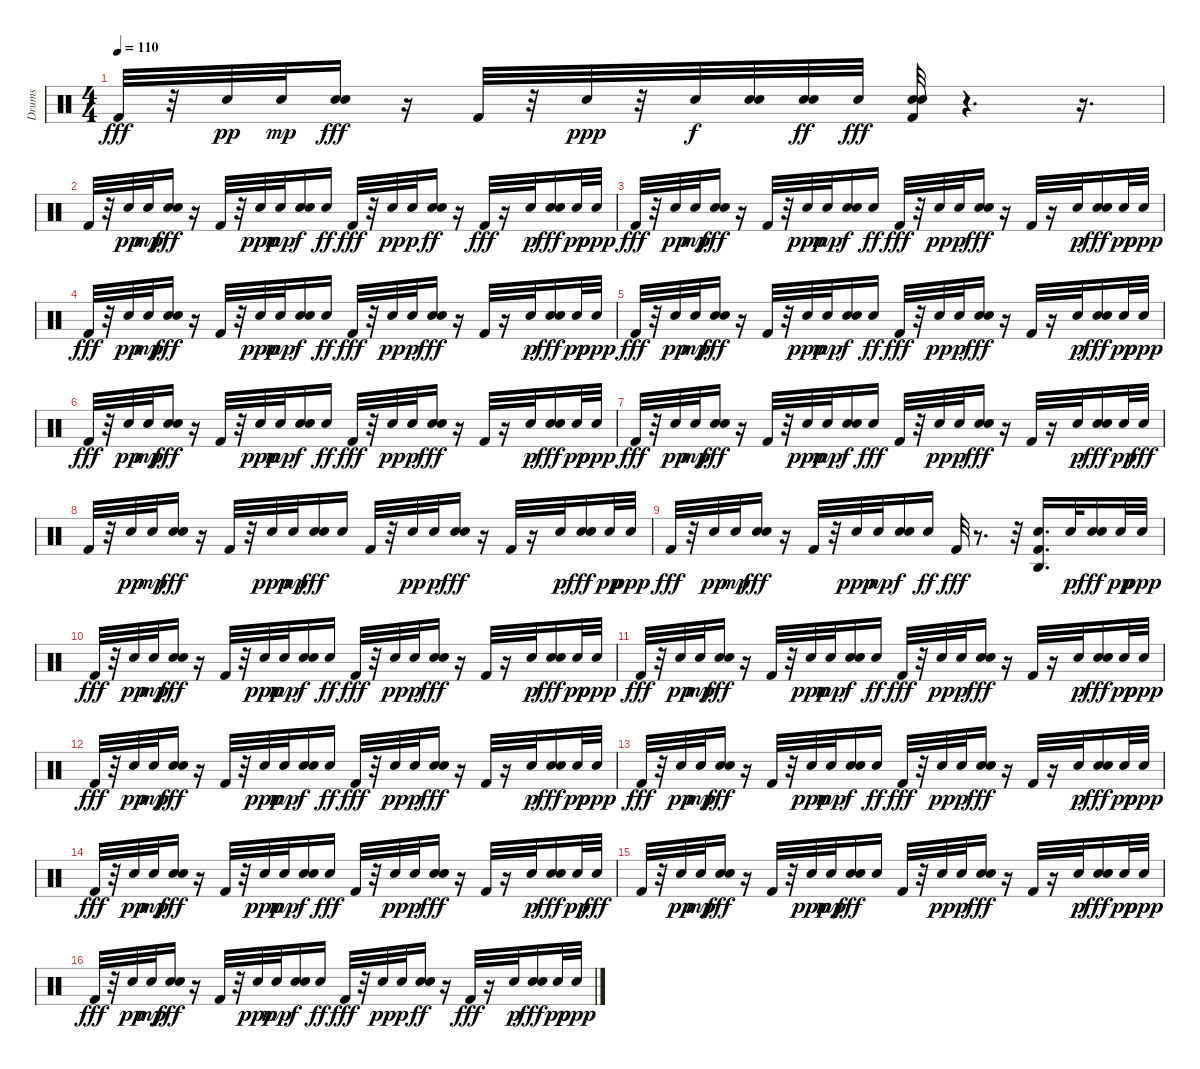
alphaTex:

\track ("Drums" "Drums") {instrument percussion}
\staff {score}
\articulation defaults
\ts (4 4)
\tempo 110
\clef neutral
\ks c "Kick (hit) 2".32{dy fff}
r.32 "Electric Snare (hit)".32{dy pp} "Electric Snare (hit)".32{dy mp} ("Snare (hit) 2" "Electric Snare (hit)").16{dy fff} r.16 "Kick (hit) 2".32 r.32 "Electric Snare (hit)".32{dy ppp} r.32 "Electric Snare (hit)".32{dy f} ("Snare (hit) 2" "Electric Snare (hit)").32 ("Snare (hit) 2" "Electric Snare (hit)").32{dy ff} "Electric Snare (hit)".32{dy fff} ("Kick (hit) 2" "Snare (hit) 2" "Electric Snare (hit)").32 r.4{d} r.16{d} |
"Kick (hit) 2".32 r.32 "Electric Snare (hit)".32{dy pp} "Electric Snare (hit)".32{dy mp} ("Snare (hit) 2" "Electric Snare (hit)").16{dy fff} r.16 "Kick (hit) 2".32 r.32 "Electric Snare (hit)".32{dy ppp} "Electric Snare (hit)".32{dy mp} ("Snare (hit) 2" "Electric Snare (hit)").16{dy f} "Electric Snare (hit)".16{dy ff} "Kick (hit) 2".32{dy fff} r.32 "Electric Snare (hit)".32{dy pp} "Electric Snare (hit)".32{dy p} ("Snare (hit) 2" "Electric Snare (hit)").16{dy ff} r.16 "Kick (hit) 2".32{dy fff} r.16 "Electric Snare (hit)".32{dy p} ("Snare (hit) 2" "Electric Snare (hit)").16{dy fff} "Electric Snare (hit)".32{dy pp} "Electric Snare (hit)".32{dy ppp} |
"Kick (hit) 2".32{dy fff} r.32 "Electric Snare (hit)".32{dy pp} "Electric Snare (hit)".32{dy mp} ("Snare (hit) 2" "Electric Snare (hit)").16{dy fff} r.16 "Kick (hit) 2".32 r.32 "Electric Snare (hit)".32{dy ppp} "Electric Snare (hit)".32{dy mp} ("Snare (hit) 2" "Electric Snare (hit)").16{dy f} "Electric Snare (hit)".16{dy ff} "Kick (hit) 2".32{dy fff} r.32 "Electric Snare (hit)".32{dy pp} "Electric Snare (hit)".32{dy p} ("Snare (hit) 2" "Electric Snare (hit)").16{dy fff} r.16 "Kick (hit) 2".32 r.16 "Electric Snare (hit)".32{dy p} ("Snare (hit) 2" "Electric Snare (hit)").16{dy fff} "Electric Snare (hit)".32{dy pp} "Electric Snare (hit)".32{dy ppp} |
"Kick (hit) 2".32{dy fff} r.32 "Electric Snare (hit)".32{dy pp} "Electric Snare (hit)".32{dy mp} ("Snare (hit) 2" "Electric Snare (hit)").16{dy fff} r.16 "Kick (hit) 2".32 r.32 "Electric Snare (hit)".32{dy ppp} "Electric Snare (hit)".32{dy mp} ("Snare (hit) 2" "Electric Snare (hit)").16{dy f} "Electric Snare (hit)".16{dy ff} "Kick (hit) 2".32{dy fff} r.32 "Electric Snare (hit)".32{dy pp} "Electric Snare (hit)".32{dy p} ("Snare (hit) 2" "Electric Snare (hit)").16{dy fff} r.16 "Kick (hit) 2".32 r.16 "Electric Snare (hit)".32{dy p} ("Snare (hit) 2" "Electric Snare (hit)").16{dy fff} "Electric Snare (hit)".32{dy pp} "Electric Snare (hit)".32{dy ppp} |
"Kick (hit) 2".32{dy fff} r.32 "Electric Snare (hit)".32{dy pp} "Electric Snare (hit)".32{dy mp} ("Snare (hit) 2" "Electric Snare (hit)").16{dy fff} r.16 "Kick (hit) 2".32 r.32 "Electric Snare (hit)".32{dy ppp} "Electric Snare (hit)".32{dy mp} ("Snare (hit) 2" "Electric Snare (hit)").16{dy f} "Electric Snare (hit)".16{dy ff} "Kick (hit) 2".32{dy fff} r.32 "Electric Snare (hit)".32{dy pp} "Electric Snare (hit)".32{dy p} ("Snare (hit) 2" "Electric Snare (hit)").16{dy fff} r.16 "Kick (hit) 2".32 r.16 "Electric Snare (hit)".32{dy p} ("Snare (hit) 2" "Electric Snare (hit)").16{dy fff} "Electric Snare (hit)".32{dy pp} "Electric Snare (hit)".32{dy ppp} |
"Kick (hit) 2".32{dy fff} r.32 "Electric Snare (hit)".32{dy pp} "Electric Snare (hit)".32{dy mp} ("Snare (hit) 2" "Electric Snare (hit)").16{dy fff} r.16 "Kick (hit) 2".32 r.32 "Electric Snare (hit)".32{dy ppp} "Electric Snare (hit)".32{dy mp} ("Snare (hit) 2" "Electric Snare (hit)").16{dy f} "Electric Snare (hit)".16{dy ff} "Kick (hit) 2".32{dy fff} r.32 "Electric Snare (hit)".32{dy pp} "Electric Snare (hit)".32{dy p} ("Snare (hit) 2" "Electric Snare (hit)").16{dy fff} r.16 "Kick (hit) 2".32 r.16 "Electric Snare (hit)".32{dy p} ("Snare (hit) 2" "Electric Snare (hit)").16{dy fff} "Electric Snare (hit)".32{dy pp} "Electric Snare (hit)".32{dy ppp} |
"Kick (hit) 2".32{dy fff} r.32 "Electric Snare (hit)".32{dy pp} "Electric Snare (hit)".32{dy mp} ("Snare (hit) 2" "Electric Snare (hit)").16{dy fff} r.16 "Kick (hit) 2".32 r.32 "Electric Snare (hit)".32{dy ppp} "Electric Snare (hit)".32{dy mp} ("Snare (hit) 2" "Electric Snare (hit)").16{dy f} "Electric Snare (hit)".16{dy fff} "Kick (hit) 2".32 r.32 "Electric Snare (hit)".32{dy pp} "Electric Snare (hit)".32{dy p} ("Snare (hit) 2" "Electric Snare (hit)").16{dy fff} r.16 "Kick (hit) 2".32 r.16 "Electric Snare (hit)".32{dy p} ("Snare (hit) 2" "Electric Snare (hit)").16{dy fff} "Electric Snare (hit)".32{dy pp} "Electric Snare (hit)".32{dy fff} |
"Kick (hit) 2".32 r.32 "Electric Snare (hit)".32{dy pp} "Electric Snare (hit)".32{dy mp} ("Snare (hit) 2" "Electric Snare (hit)").16{dy fff} r.16 "Kick (hit) 2".32 r.32 "Electric Snare (hit)".32{dy ppp} "Electric Snare (hit)".32{dy mp} ("Snare (hit) 2" "Electric Snare (hit)").16{dy fff} "Electric Snare (hit)".16 "Kick (hit) 2".32 r.32 "Electric Snare (hit)".32{dy pp} "Electric Snare (hit)".32{dy p} ("Snare (hit) 2" "Electric Snare (hit)").16{dy fff} r.16 "Kick (hit) 2".32 r.16 "Electric Snare (hit)".32{dy p} ("Snare (hit) 2" "Electric Snare (hit)").16{dy fff} "Electric Snare (hit)".32{dy pp} "Electric Snare (hit)".32{dy ppp} |
"Kick (hit) 2".32{dy fff} r.32 "Electric Snare (hit)".32{dy pp} "Electric Snare (hit)".32{dy mp} ("Snare (hit) 2" "Electric Snare (hit)").16{dy fff} r.16 "Kick (hit) 2".32 r.32 "Electric Snare (hit)".32{dy ppp} "Electric Snare (hit)".32{dy mp} ("Snare (hit) 2" "Electric Snare (hit)").16{dy f} "Electric Snare (hit)".16{dy ff} "Kick (hit) 2".32{dy fff} r.8{d} r.32 ("Agogo high (hit)" "Kick (hit) 2" "Snare (hit) 2").16{d} "Electric Snare (hit)".32{dy p} ("Snare (hit) 2" "Electric Snare (hit)").16{dy fff} "Electric Snare (hit)".32{dy pp} "Electric Snare (hit)".32{dy ppp} |
"Kick (hit) 2".32{dy fff} r.32 "Electric Snare (hit)".32{dy pp} "Electric Snare (hit)".32{dy mp} ("Snare (hit) 2" "Electric Snare (hit)").16{dy fff} r.16 "Kick (hit) 2".32 r.32 "Electric Snare (hit)".32{dy ppp} "Electric Snare (hit)".32{dy mp} ("Snare (hit) 2" "Electric Snare (hit)").16{dy f} "Electric Snare (hit)".16{dy ff} "Kick (hit) 2".32{dy fff} r.32 "Electric Snare (hit)".32{dy pp} "Electric Snare (hit)".32{dy p} ("Snare (hit) 2" "Electric Snare (hit)").16{dy fff} r.16 "Kick (hit) 2".32 r.16 "Electric Snare (hit)".32{dy p} ("Snare (hit) 2" "Electric Snare (hit)").16{dy fff} "Electric Snare (hit)".32{dy pp} "Electric Snare (hit)".32{dy ppp} |
"Kick (hit) 2".32{dy fff} r.32 "Electric Snare (hit)".32{dy pp} "Electric Snare (hit)".32{dy mp} ("Snare (hit) 2" "Electric Snare (hit)").16{dy fff} r.16 "Kick (hit) 2".32 r.32 "Electric Snare (hit)".32{dy ppp} "Electric Snare (hit)".32{dy mp} ("Snare (hit) 2" "Electric Snare (hit)").16{dy f} "Electric Snare (hit)".16{dy ff} "Kick (hit) 2".32{dy fff} r.32 "Electric Snare (hit)".32{dy pp} "Electric Snare (hit)".32{dy p} ("Snare (hit) 2" "Electric Snare (hit)").16{dy fff} r.16 "Kick (hit) 2".32 r.16 "Electric Snare (hit)".32{dy p} ("Snare (hit) 2" "Electric Snare (hit)").16{dy fff} "Electric Snare (hit)".32{dy pp} "Electric Snare (hit)".32{dy ppp} |
"Kick (hit) 2".32{dy fff} r.32 "Electric Snare (hit)".32{dy pp} "Electric Snare (hit)".32{dy mp} ("Snare (hit) 2" "Electric Snare (hit)").16{dy fff} r.16 "Kick (hit) 2".32 r.32 "Electric Snare (hit)".32{dy ppp} "Electric Snare (hit)".32{dy mp} ("Snare (hit) 2" "Electric Snare (hit)").16{dy f} "Electric Snare (hit)".16{dy ff} "Kick (hit) 2".32{dy fff} r.32 "Electric Snare (hit)".32{dy pp} "Electric Snare (hit)".32{dy p} ("Snare (hit) 2" "Electric Snare (hit)").16{dy fff} r.16 "Kick (hit) 2".32 r.16 "Electric Snare (hit)".32{dy p} ("Snare (hit) 2" "Electric Snare (hit)").16{dy fff} "Electric Snare (hit)".32{dy pp} "Electric Snare (hit)".32{dy ppp} |
"Kick (hit) 2".32{dy fff} r.32 "Electric Snare (hit)".32{dy pp} "Electric Snare (hit)".32{dy mp} ("Snare (hit) 2" "Electric Snare (hit)").16{dy fff} r.16 "Kick (hit) 2".32 r.32 "Electric Snare (hit)".32{dy ppp} "Electric Snare (hit)".32{dy mp} ("Snare (hit) 2" "Electric Snare (hit)").16{dy f} "Electric Snare (hit)".16{dy ff} "Kick (hit) 2".32{dy fff} r.32 "Electric Snare (hit)".32{dy pp} "Electric Snare (hit)".32{dy p} ("Snare (hit) 2" "Electric Snare (hit)").16{dy fff} r.16 "Kick (hit) 2".32 r.16 "Electric Snare (hit)".32{dy p} ("Snare (hit) 2" "Electric Snare (hit)").16{dy fff} "Electric Snare (hit)".32{dy pp} "Electric Snare (hit)".32{dy ppp} |
"Kick (hit) 2".32{dy fff} r.32 "Electric Snare (hit)".32{dy pp} "Electric Snare (hit)".32{dy mp} ("Snare (hit) 2" "Electric Snare (hit)").16{dy fff} r.16 "Kick (hit) 2".32 r.32 "Electric Snare (hit)".32{dy ppp} "Electric Snare (hit)".32{dy mp} ("Snare (hit) 2" "Electric Snare (hit)").16{dy f} "Electric Snare (hit)".16{dy fff} "Kick (hit) 2".32 r.32 "Electric Snare (hit)".32{dy pp} "Electric Snare (hit)".32{dy p} ("Snare (hit) 2" "Electric Snare (hit)").16{dy fff} r.16 "Kick (hit) 2".32 r.16 "Electric Snare (hit)".32{dy p} ("Snare (hit) 2" "Electric Snare (hit)").16{dy fff} "Electric Snare (hit)".32{dy pp} "Electric Snare (hit)".32{dy fff} |
"Kick (hit) 2".32 r.32 "Electric Snare (hit)".32{dy pp} "Electric Snare (hit)".32{dy mp} ("Snare (hit) 2" "Electric Snare (hit)").16{dy fff} r.16 "Kick (hit) 2".32 r.32 "Electric Snare (hit)".32{dy ppp} "Electric Snare (hit)".32{dy mp} ("Snare (hit) 2" "Electric Snare (hit)").16{dy fff} "Electric Snare (hit)".16 "Kick (hit) 2".32 r.32 "Electric Snare (hit)".32{dy pp} "Electric Snare (hit)".32{dy p} ("Snare (hit) 2" "Electric Snare (hit)").16{dy fff} r.16 "Kick (hit) 2".32 r.16 "Electric Snare (hit)".32{dy p} ("Snare (hit) 2" "Electric Snare (hit)").16{dy fff} "Electric Snare (hit)".32{dy pp} "Electric Snare (hit)".32{dy ppp} |
"Kick (hit) 2".32{dy fff} r.32 "Electric Snare (hit)".32{dy pp} "Electric Snare (hit)".32{dy mp} ("Snare (hit) 2" "Electric Snare (hit)").16{dy fff} r.16 "Kick (hit) 2".32 r.32 "Electric Snare (hit)".32{dy ppp} "Electric Snare (hit)".32{dy mp} ("Snare (hit) 2" "Electric Snare (hit)").16{dy f} "Electric Snare (hit)".16{dy ff} "Kick (hit) 2".32{dy fff} r.32 "Electric Snare (hit)".32{dy pp} "Electric Snare (hit)".32{dy p} ("Snare (hit) 2" "Electric Snare (hit)").16{dy ff} r.16 "Kick (hit) 2".32{dy fff} r.16 "Electric Snare (hit)".32{dy p} ("Snare (hit) 2" "Electric Snare (hit)").16{dy fff} "Electric Snare (hit)".32{dy pp} "Electric Snare (hit)".32{dy ppp}
